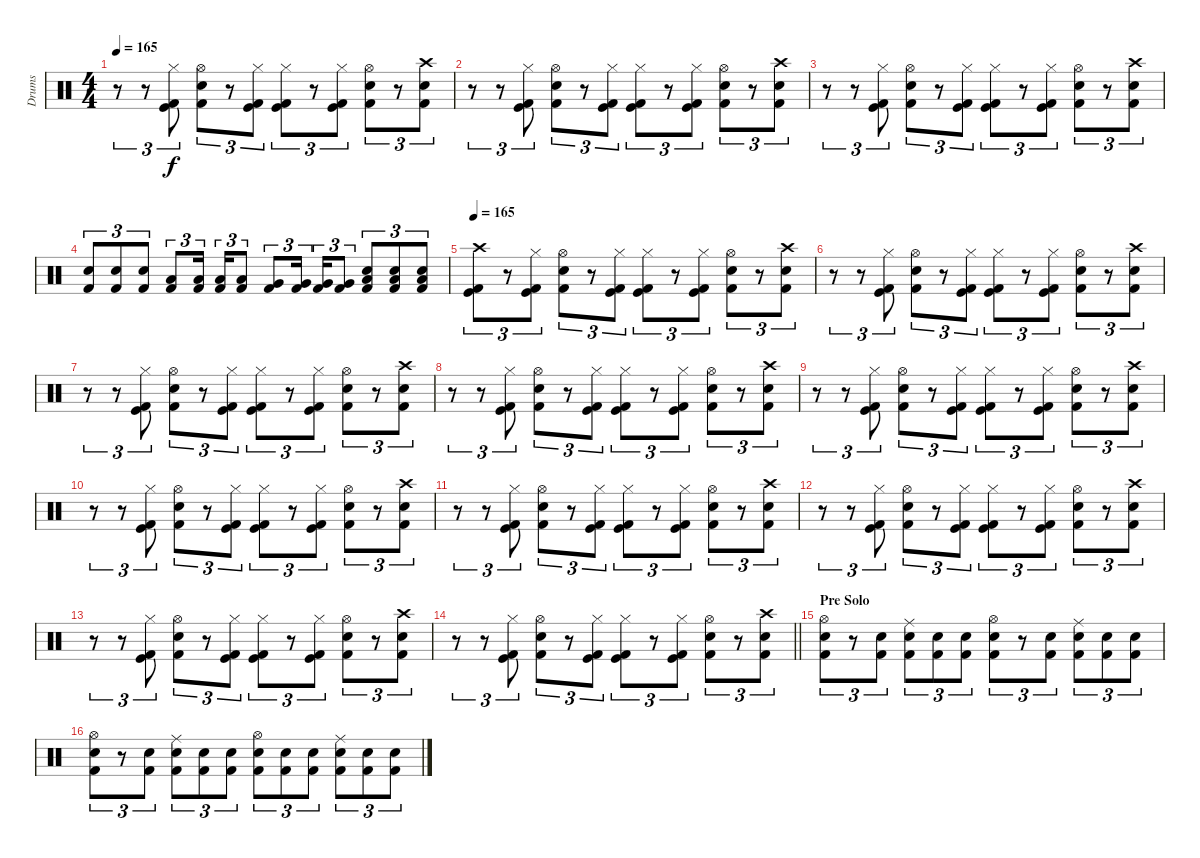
\track ("Drums" "Drums") {instrument percussion}
\staff {score}
\articulation defaults
\ts (4 4)
\tempo 165
\clef neutral
\ks c
r.8{tu (3 2) dy f} r.8{tu (3 2)} ("Kick (hit)" "Kick (hit) 2" "Hi-Hat (closed)").8{tu (3 2)} ("Snare (hit) 2" "Kick (hit) 2" "Hi-Hat (open)").8{tu (3 2)} r.8{tu (3 2)} ("Kick (hit)" "Kick (hit) 2" "Hi-Hat (closed)").8{tu (3 2)} ("Kick (hit)" "Kick (hit) 2" "Hi-Hat (closed)").8{tu (3 2)} r.8{tu (3 2)} ("Kick (hit)" "Kick (hit) 2" "Hi-Hat (closed)").8{tu (3 2)} ("Snare (hit) 2" "Kick (hit) 2" "Hi-Hat (open)").8{tu (3 2)} r.8{tu (3 2)} ("Snare (hit) 2" "Kick (hit) 2" "Crash high (hit)").8{tu (3 2)} |
r.8{tu (3 2)} r.8{tu (3 2)} ("Kick (hit)" "Kick (hit) 2" "Hi-Hat (closed)").8{tu (3 2)} ("Snare (hit) 2" "Kick (hit) 2" "Hi-Hat (open)").8{tu (3 2)} r.8{tu (3 2)} ("Kick (hit)" "Kick (hit) 2" "Hi-Hat (closed)").8{tu (3 2)} ("Kick (hit)" "Kick (hit) 2" "Hi-Hat (closed)").8{tu (3 2)} r.8{tu (3 2)} ("Kick (hit)" "Kick (hit) 2" "Hi-Hat (closed)").8{tu (3 2)} ("Snare (hit) 2" "Kick (hit) 2" "Hi-Hat (open)").8{tu (3 2)} r.8{tu (3 2)} ("Snare (hit) 2" "Kick (hit) 2" "Crash high (hit)").8{tu (3 2)} |
r.8{tu (3 2)} r.8{tu (3 2)} ("Kick (hit)" "Kick (hit) 2" "Hi-Hat (closed)").8{tu (3 2)} ("Snare (hit) 2" "Kick (hit) 2" "Hi-Hat (open)").8{tu (3 2)} r.8{tu (3 2)} ("Kick (hit)" "Kick (hit) 2" "Hi-Hat (closed)").8{tu (3 2)} ("Kick (hit)" "Kick (hit) 2" "Hi-Hat (closed)").8{tu (3 2)} r.8{tu (3 2)} ("Kick (hit)" "Kick (hit) 2" "Hi-Hat (closed)").8{tu (3 2)} ("Snare (hit) 2" "Kick (hit) 2" "Hi-Hat (open)").8{tu (3 2)} r.8{tu (3 2)} ("Snare (hit) 2" "Kick (hit) 2" "Crash high (hit)").8{tu (3 2)} |
("Snare (hit) 2" "Kick (hit) 2").8{tu (3 2)} ("Snare (hit) 2" "Kick (hit) 2").8{tu (3 2)} ("Snare (hit) 2" "Kick (hit) 2").8{tu (3 2)} ("Low Tom (hit)" "Kick (hit) 2").8{tu (3 2)} ("Low Tom (hit)" "Kick (hit) 2").16{tu (3 2) beam splitsecondary} ("Low Tom (hit)" "Kick (hit) 2").16{tu (3 2)} ("Low Tom (hit)" "Kick (hit) 2").8{tu (3 2)} ("Very Low Tom (hit)" "Kick (hit) 2").8{tu (3 2)} ("Very Low Tom (hit)" "Kick (hit) 2").16{tu (3 2) beam splitsecondary} ("Very Low Tom (hit)" "Kick (hit) 2").16{tu (3 2)} ("Very Low Tom (hit)" "Kick (hit) 2").8{tu (3 2)} ("Low Floor Tom (hit)" "Snare (hit) 2" "Kick (hit) 2").8{tu (3 2)} ("Low Floor Tom (hit)" "Snare (hit) 2" "Kick (hit) 2").8{tu (3 2)} ("Low Floor Tom (hit)" "Snare (hit) 2" "Kick (hit) 2").8{tu (3 2)} |
\tempo 165
("Kick (hit)" "Kick (hit) 2" "Crash high (hit)").8{tu (3 2)} r.8{tu (3 2)} ("Kick (hit)" "Kick (hit) 2" "Hi-Hat (closed)").8{tu (3 2)} ("Snare (hit) 2" "Kick (hit) 2" "Hi-Hat (open)").8{tu (3 2)} r.8{tu (3 2)} ("Kick (hit)" "Kick (hit) 2" "Hi-Hat (closed)").8{tu (3 2)} ("Kick (hit)" "Kick (hit) 2" "Hi-Hat (closed)").8{tu (3 2)} r.8{tu (3 2)} ("Kick (hit)" "Kick (hit) 2" "Hi-Hat (closed)").8{tu (3 2)} ("Snare (hit) 2" "Kick (hit) 2" "Hi-Hat (open)").8{tu (3 2)} r.8{tu (3 2)} ("Snare (hit) 2" "Kick (hit) 2" "Crash high (hit)").8{tu (3 2)} |
r.8{tu (3 2)} r.8{tu (3 2)} ("Kick (hit)" "Kick (hit) 2" "Hi-Hat (closed)").8{tu (3 2)} ("Snare (hit) 2" "Kick (hit) 2" "Hi-Hat (open)").8{tu (3 2)} r.8{tu (3 2)} ("Kick (hit)" "Kick (hit) 2" "Hi-Hat (closed)").8{tu (3 2)} ("Kick (hit)" "Kick (hit) 2" "Hi-Hat (closed)").8{tu (3 2)} r.8{tu (3 2)} ("Kick (hit)" "Kick (hit) 2" "Hi-Hat (closed)").8{tu (3 2)} ("Snare (hit) 2" "Kick (hit) 2" "Hi-Hat (open)").8{tu (3 2)} r.8{tu (3 2)} ("Snare (hit) 2" "Kick (hit) 2" "Crash high (hit)").8{tu (3 2)} |
r.8{tu (3 2)} r.8{tu (3 2)} ("Kick (hit)" "Kick (hit) 2" "Hi-Hat (closed)").8{tu (3 2)} ("Snare (hit) 2" "Kick (hit) 2" "Hi-Hat (open)").8{tu (3 2)} r.8{tu (3 2)} ("Kick (hit)" "Kick (hit) 2" "Hi-Hat (closed)").8{tu (3 2)} ("Kick (hit)" "Kick (hit) 2" "Hi-Hat (closed)").8{tu (3 2)} r.8{tu (3 2)} ("Kick (hit)" "Kick (hit) 2" "Hi-Hat (closed)").8{tu (3 2)} ("Snare (hit) 2" "Kick (hit) 2" "Hi-Hat (open)").8{tu (3 2)} r.8{tu (3 2)} ("Snare (hit) 2" "Kick (hit) 2" "Crash high (hit)").8{tu (3 2)} |
r.8{tu (3 2)} r.8{tu (3 2)} ("Kick (hit)" "Kick (hit) 2" "Hi-Hat (closed)").8{tu (3 2)} ("Snare (hit) 2" "Kick (hit) 2" "Hi-Hat (open)").8{tu (3 2)} r.8{tu (3 2)} ("Kick (hit)" "Kick (hit) 2" "Hi-Hat (closed)").8{tu (3 2)} ("Kick (hit)" "Kick (hit) 2" "Hi-Hat (closed)").8{tu (3 2)} r.8{tu (3 2)} ("Kick (hit)" "Kick (hit) 2" "Hi-Hat (closed)").8{tu (3 2)} ("Snare (hit) 2" "Kick (hit) 2" "Hi-Hat (open)").8{tu (3 2)} r.8{tu (3 2)} ("Snare (hit) 2" "Kick (hit) 2" "Crash high (hit)").8{tu (3 2)} |
r.8{tu (3 2)} r.8{tu (3 2)} ("Kick (hit)" "Kick (hit) 2" "Hi-Hat (closed)").8{tu (3 2)} ("Snare (hit) 2" "Kick (hit) 2" "Hi-Hat (open)").8{tu (3 2)} r.8{tu (3 2)} ("Kick (hit)" "Kick (hit) 2" "Hi-Hat (closed)").8{tu (3 2)} ("Kick (hit)" "Kick (hit) 2" "Hi-Hat (closed)").8{tu (3 2)} r.8{tu (3 2)} ("Kick (hit)" "Kick (hit) 2" "Hi-Hat (closed)").8{tu (3 2)} ("Snare (hit) 2" "Kick (hit) 2" "Hi-Hat (open)").8{tu (3 2)} r.8{tu (3 2)} ("Snare (hit) 2" "Kick (hit) 2" "Crash high (hit)").8{tu (3 2)} |
r.8{tu (3 2)} r.8{tu (3 2)} ("Kick (hit)" "Kick (hit) 2" "Hi-Hat (closed)").8{tu (3 2)} ("Snare (hit) 2" "Kick (hit) 2" "Hi-Hat (open)").8{tu (3 2)} r.8{tu (3 2)} ("Kick (hit)" "Kick (hit) 2" "Hi-Hat (closed)").8{tu (3 2)} ("Kick (hit)" "Kick (hit) 2" "Hi-Hat (closed)").8{tu (3 2)} r.8{tu (3 2)} ("Kick (hit)" "Kick (hit) 2" "Hi-Hat (closed)").8{tu (3 2)} ("Snare (hit) 2" "Kick (hit) 2" "Hi-Hat (open)").8{tu (3 2)} r.8{tu (3 2)} ("Snare (hit) 2" "Kick (hit) 2" "Crash high (hit)").8{tu (3 2)} |
r.8{tu (3 2)} r.8{tu (3 2)} ("Kick (hit)" "Kick (hit) 2" "Hi-Hat (closed)").8{tu (3 2)} ("Snare (hit) 2" "Kick (hit) 2" "Hi-Hat (open)").8{tu (3 2)} r.8{tu (3 2)} ("Kick (hit)" "Kick (hit) 2" "Hi-Hat (closed)").8{tu (3 2)} ("Kick (hit)" "Kick (hit) 2" "Hi-Hat (closed)").8{tu (3 2)} r.8{tu (3 2)} ("Kick (hit)" "Kick (hit) 2" "Hi-Hat (closed)").8{tu (3 2)} ("Snare (hit) 2" "Kick (hit) 2" "Hi-Hat (open)").8{tu (3 2)} r.8{tu (3 2)} ("Snare (hit) 2" "Kick (hit) 2" "Crash high (hit)").8{tu (3 2)} |
r.8{tu (3 2)} r.8{tu (3 2)} ("Kick (hit)" "Kick (hit) 2" "Hi-Hat (closed)").8{tu (3 2)} ("Snare (hit) 2" "Kick (hit) 2" "Hi-Hat (open)").8{tu (3 2)} r.8{tu (3 2)} ("Kick (hit)" "Kick (hit) 2" "Hi-Hat (closed)").8{tu (3 2)} ("Kick (hit)" "Kick (hit) 2" "Hi-Hat (closed)").8{tu (3 2)} r.8{tu (3 2)} ("Kick (hit)" "Kick (hit) 2" "Hi-Hat (closed)").8{tu (3 2)} ("Snare (hit) 2" "Kick (hit) 2" "Hi-Hat (open)").8{tu (3 2)} r.8{tu (3 2)} ("Snare (hit) 2" "Kick (hit) 2" "Crash high (hit)").8{tu (3 2)} |
r.8{tu (3 2)} r.8{tu (3 2)} ("Kick (hit)" "Kick (hit) 2" "Hi-Hat (closed)").8{tu (3 2)} ("Snare (hit) 2" "Kick (hit) 2" "Hi-Hat (open)").8{tu (3 2)} r.8{tu (3 2)} ("Kick (hit)" "Kick (hit) 2" "Hi-Hat (closed)").8{tu (3 2)} ("Kick (hit)" "Kick (hit) 2" "Hi-Hat (closed)").8{tu (3 2)} r.8{tu (3 2)} ("Kick (hit)" "Kick (hit) 2" "Hi-Hat (closed)").8{tu (3 2)} ("Snare (hit) 2" "Kick (hit) 2" "Hi-Hat (open)").8{tu (3 2)} r.8{tu (3 2)} ("Snare (hit) 2" "Kick (hit) 2" "Crash high (hit)").8{tu (3 2)} |
\barLineRight lightlight
r.8{tu (3 2)} r.8{tu (3 2)} ("Kick (hit)" "Kick (hit) 2" "Hi-Hat (closed)").8{tu (3 2)} ("Snare (hit) 2" "Kick (hit) 2" "Hi-Hat (open)").8{tu (3 2)} r.8{tu (3 2)} ("Kick (hit)" "Kick (hit) 2" "Hi-Hat (closed)").8{tu (3 2)} ("Kick (hit)" "Kick (hit) 2" "Hi-Hat (closed)").8{tu (3 2)} r.8{tu (3 2)} ("Kick (hit)" "Kick (hit) 2" "Hi-Hat (closed)").8{tu (3 2)} ("Snare (hit) 2" "Kick (hit) 2" "Hi-Hat (open)").8{tu (3 2)} r.8{tu (3 2)} ("Snare (hit) 2" "Kick (hit) 2" "Crash high (hit)").8{tu (3 2)} |
\section ("" "Pre Solo")
("Snare (hit) 2" "Kick (hit) 2" "Hi-Hat (open)").8{tu (3 2)} r.8{tu (3 2)} ("Snare (hit) 2" "Kick (hit) 2").8{tu (3 2)} ("Ride (middle)" "Snare (hit) 2" "Kick (hit) 2").8{tu (3 2)} ("Snare (hit) 2" "Kick (hit) 2").8{tu (3 2)} ("Snare (hit) 2" "Kick (hit) 2").8{tu (3 2)} ("Snare (hit) 2" "Kick (hit) 2" "Hi-Hat (open)").8{tu (3 2)} r.8{tu (3 2)} ("Snare (hit) 2" "Kick (hit) 2").8{tu (3 2)} ("Ride (middle)" "Snare (hit) 2" "Kick (hit) 2").8{tu (3 2)} ("Snare (hit) 2" "Kick (hit) 2").8{tu (3 2)} ("Snare (hit) 2" "Kick (hit) 2").8{tu (3 2)} |
("Snare (hit) 2" "Kick (hit) 2" "Hi-Hat (open)").8{tu (3 2)} r.8{tu (3 2)} ("Snare (hit) 2" "Kick (hit) 2").8{tu (3 2)} ("Ride (middle)" "Snare (hit) 2" "Kick (hit) 2").8{tu (3 2)} ("Snare (hit) 2" "Kick (hit) 2").8{tu (3 2)} ("Snare (hit) 2" "Kick (hit) 2").8{tu (3 2)} ("Snare (hit) 2" "Kick (hit) 2" "Hi-Hat (open)").8{tu (3 2)} ("Snare (hit) 2" "Kick (hit) 2").8{tu (3 2)} ("Snare (hit) 2" "Kick (hit) 2").8{tu (3 2)} ("Ride (middle)" "Snare (hit) 2" "Kick (hit) 2").8{tu (3 2)} ("Snare (hit) 2" "Kick (hit) 2").8{tu (3 2)} ("Snare (hit) 2" "Kick (hit) 2").8{tu (3 2)}
